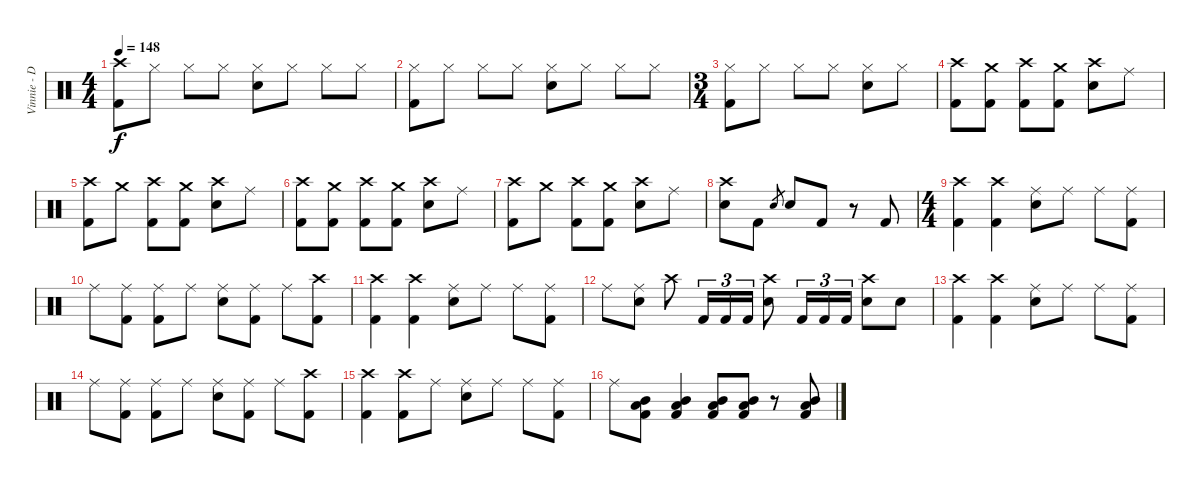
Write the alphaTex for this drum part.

\track ("Vinnie - Drums" "Vinnie - D") {instrument percussion}
\staff {score}
\articulation defaults
\ts (4 4)
\tempo 148
\clef neutral
\ks c
("Crash high (hit)" "Kick (hit) 2").8{dy f} "Hi-Hat (closed)".8 "Hi-Hat (closed)".8 "Hi-Hat (closed)".8 ("Hi-Hat (closed)" "Electric Snare (hit)").8 "Hi-Hat (closed)".8 "Hi-Hat (closed)".8 "Hi-Hat (closed)".8 |
("Hi-Hat (closed)" "Kick (hit) 2").8 "Hi-Hat (closed)".8 "Hi-Hat (closed)".8 "Hi-Hat (closed)".8 ("Hi-Hat (closed)" "Electric Snare (hit)").8 "Hi-Hat (closed)".8 "Hi-Hat (closed)".8 "Hi-Hat (closed)".8 |
\ts (3 4)
("Hi-Hat (closed)" "Kick (hit) 2").8 "Hi-Hat (closed)".8 "Hi-Hat (closed)".8 "Hi-Hat (closed)".8 ("Hi-Hat (closed)" "Electric Snare (hit)").8 "Hi-Hat (closed)".8 |
("Crash high (hit)" "Kick (hit) 2").8 ("Crash medium (hit)" "Kick (hit) 2").8 ("Crash high (hit)" "Kick (hit) 2").8 ("Crash medium (hit)" "Kick (hit) 2").8 ("Crash high (hit)" "Electric Snare (hit)").8 "Ride (middle)".8 |
("Crash high (hit)" "Kick (hit) 2").8 "Crash medium (hit)".8 ("Crash high (hit)" "Kick (hit) 2").8 ("Crash medium (hit)" "Kick (hit) 2").8 ("Crash high (hit)" "Electric Snare (hit)").8 "Ride (middle)".8 |
("Crash high (hit)" "Kick (hit) 2").8 ("Crash medium (hit)" "Kick (hit) 2").8 ("Crash high (hit)" "Kick (hit) 2").8 ("Crash medium (hit)" "Kick (hit) 2").8 ("Crash high (hit)" "Electric Snare (hit)").8 "Ride (middle)".8 |
("Crash high (hit)" "Kick (hit) 2").8 "Crash medium (hit)".8 ("Crash high (hit)" "Kick (hit) 2").8 ("Crash medium (hit)" "Kick (hit) 2").8 ("Crash high (hit)" "Electric Snare (hit)").8 "Ride (middle)".8 |
("Crash high (hit)" "Electric Snare (hit)").8 "Kick (hit) 2".8 "Electric Snare (hit)".8{gr} "Electric Snare (hit)".8 "Kick (hit) 2".8 r.8 "Kick (hit) 2".8 |
\ts (4 4)
("Crash high (hit)" "Kick (hit) 2").4 ("Crash high (hit)" "Kick (hit) 2").4 ("Ride (middle)" "Electric Snare (hit)").8 "Ride (middle)".8 "Ride (middle)".8 ("Ride (middle)" "Kick (hit) 2").8 |
"Ride (middle)".8 ("Ride (middle)" "Kick (hit) 2").8 ("Ride (middle)" "Kick (hit) 2").8 "Ride (middle)".8 ("Ride (middle)" "Electric Snare (hit)").8 ("Ride (middle)" "Kick (hit) 2").8 "Ride (middle)".8 ("Crash high (hit)" "Kick (hit) 2").8 |
("Crash high (hit)" "Kick (hit) 2").4 ("Crash high (hit)" "Kick (hit) 2").4 ("Ride (middle)" "Electric Snare (hit)").8 "Ride (middle)".8 "Ride (middle)".8 ("Ride (middle)" "Kick (hit) 2").8 |
"Ride (middle)".8 ("Ride (middle)" "Electric Snare (hit)").8 "Crash high (hit)".8 "Kick (hit) 2".16{tu (3 2)} "Kick (hit) 2".16{tu (3 2)} "Kick (hit) 2".16{tu (3 2)} ("Crash high (hit)" "Electric Snare (hit)").8 "Kick (hit) 2".16{tu (3 2)} "Kick (hit) 2".16{tu (3 2)} "Kick (hit) 2".16{tu (3 2)} ("Crash high (hit)" "Electric Snare (hit)").8 "Electric Snare (hit)".8 |
("Crash high (hit)" "Kick (hit) 2").4 ("Crash high (hit)" "Kick (hit) 2").4 ("Ride (middle)" "Electric Snare (hit)").8 "Ride (middle)".8 "Ride (middle)".8 ("Ride (middle)" "Kick (hit) 2").8 |
"Ride (middle)".8 ("Ride (middle)" "Kick (hit) 2").8 ("Ride (middle)" "Kick (hit) 2").8 "Ride (middle)".8 ("Ride (middle)" "Electric Snare (hit)").8 ("Ride (middle)" "Kick (hit) 2").8 "Ride (middle)".8 ("Crash high (hit)" "Kick (hit) 2").8 |
("Crash high (hit)" "Kick (hit) 2").4 ("Crash high (hit)" "Kick (hit) 2").8 "Ride (middle)".8 ("Ride (middle)" "Electric Snare (hit)").8 "Ride (middle)".8 "Ride (middle)".8 ("Ride (middle)" "Kick (hit) 2").8 |
"Ride (middle)".8 ("Mid Tom (hit)" "Low Tom (hit)" "Kick (hit) 2").8 ("Mid Tom (hit)" "Low Tom (hit)" "Kick (hit) 2").4 ("Mid Tom (hit)" "Low Tom (hit)" "Kick (hit) 2").8 ("Mid Tom (hit)" "Low Tom (hit)" "Kick (hit) 2").8 r.8 ("Mid Tom (hit)" "Low Tom (hit)" "Kick (hit) 2").8
